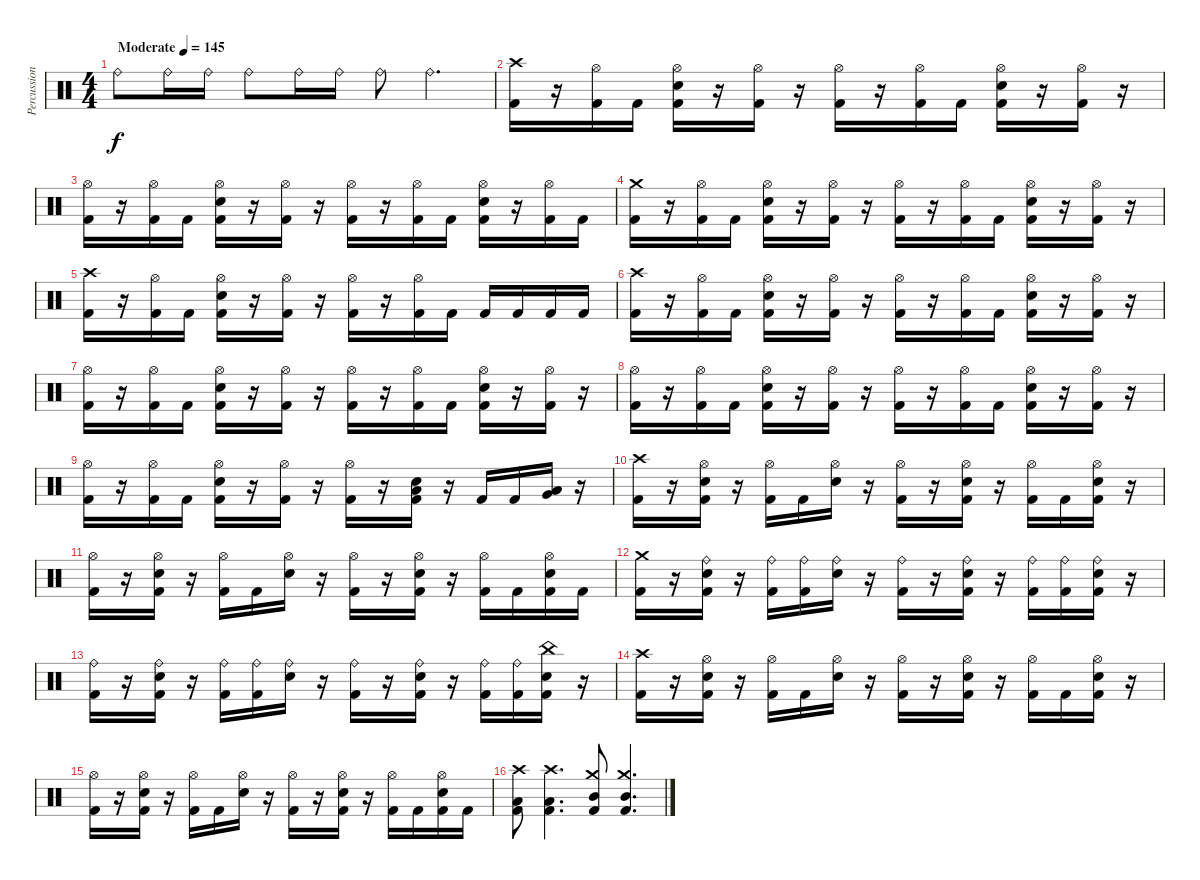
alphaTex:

\track ("Percussion" "Percussion") {instrument percussion}
\staff {score}
\articulation defaults
\ts (4 4)
\tempo (145 "Moderate")
\clef neutral
\ks c "Ride (bell)".8{dy f} "Ride (bell)".16 "Ride (bell)".16 "Ride (bell)".8 "Ride (bell)".16 "Ride (bell)".16 "Ride (bell)".8 "Ride (bell)".4{d}
|
("Crash high (hit)" "Kick (hit) 2").16 r.16 ("Hi-Hat (open)" "Kick (hit) 2").16 "Kick (hit) 2".16 ("Hi-Hat (open)" "Snare (hit) 2" "Kick (hit) 2").16 r.16 ("Hi-Hat (open)" "Kick (hit) 2").16 r.16 ("Hi-Hat (open)" "Kick (hit) 2").16 r.16 ("Hi-Hat (open)" "Kick (hit) 2").16 "Kick (hit) 2".16 ("Hi-Hat (open)" "Snare (hit) 2" "Kick (hit) 2").16 r.16 ("Hi-Hat (open)" "Kick (hit) 2").16 r.16 |
("Hi-Hat (open)" "Kick (hit) 2").16 r.16 ("Hi-Hat (open)" "Kick (hit) 2").16 "Kick (hit) 2".16 ("Hi-Hat (open)" "Snare (hit) 2" "Kick (hit) 2").16 r.16 ("Hi-Hat (open)" "Kick (hit) 2").16 r.16 ("Hi-Hat (open)" "Kick (hit) 2").16 r.16 ("Hi-Hat (open)" "Kick (hit) 2").16 "Kick (hit) 2".16 ("Hi-Hat (open)" "Snare (hit) 2" "Kick (hit) 2").16 r.16 ("Hi-Hat (open)" "Kick (hit) 2").16 "Kick (hit) 2".16 |
("Crash medium (hit)" "Kick (hit) 2").16 r.16 ("Hi-Hat (open)" "Kick (hit) 2").16 "Kick (hit) 2".16 ("Hi-Hat (open)" "Snare (hit) 2" "Kick (hit) 2").16 r.16 ("Hi-Hat (open)" "Kick (hit) 2").16 r.16 ("Hi-Hat (open)" "Kick (hit) 2").16 r.16 ("Hi-Hat (open)" "Kick (hit) 2").16 "Kick (hit) 2".16 ("Hi-Hat (open)" "Snare (hit) 2" "Kick (hit) 2").16 r.16 ("Hi-Hat (open)" "Kick (hit) 2").16 r.16 |
("Crash high (hit)" "Kick (hit) 2").16 r.16 ("Hi-Hat (open)" "Kick (hit) 2").16 "Kick (hit) 2".16 ("Hi-Hat (open)" "Snare (hit) 2" "Kick (hit) 2").16 r.16 ("Hi-Hat (open)" "Kick (hit) 2").16 r.16 ("Hi-Hat (open)" "Kick (hit) 2").16 r.16 ("Hi-Hat (open)" "Kick (hit) 2").16 "Kick (hit) 2".16 "Kick (hit) 2".16 "Kick (hit) 2".16 "Kick (hit) 2".16 "Kick (hit) 2".16 |
("Crash high (hit)" "Kick (hit) 2").16 r.16 ("Hi-Hat (open)" "Kick (hit) 2").16 "Kick (hit) 2".16 ("Hi-Hat (open)" "Snare (hit) 2" "Kick (hit) 2").16 r.16 ("Hi-Hat (open)" "Kick (hit) 2").16 r.16 ("Hi-Hat (open)" "Kick (hit) 2").16 r.16 ("Hi-Hat (open)" "Kick (hit) 2").16 "Kick (hit) 2".16 ("Hi-Hat (open)" "Snare (hit) 2" "Kick (hit) 2").16 r.16 ("Hi-Hat (open)" "Kick (hit) 2").16 r.16 |
("Hi-Hat (open)" "Kick (hit) 2").16 r.16 ("Hi-Hat (open)" "Kick (hit) 2").16 "Kick (hit) 2".16 ("Hi-Hat (open)" "Snare (hit) 2" "Kick (hit) 2").16 r.16 ("Hi-Hat (open)" "Kick (hit) 2").16 r.16 ("Hi-Hat (open)" "Kick (hit) 2").16 r.16 ("Hi-Hat (open)" "Kick (hit) 2").16 "Kick (hit) 2".16 ("Hi-Hat (open)" "Snare (hit) 2" "Kick (hit) 2").16 r.16 ("Hi-Hat (open)" "Kick (hit) 2").16 r.16 |
("Hi-Hat (open)" "Kick (hit) 2").16 r.16 ("Hi-Hat (open)" "Kick (hit) 2").16 "Kick (hit) 2".16 ("Hi-Hat (open)" "Snare (hit) 2" "Kick (hit) 2").16 r.16 ("Hi-Hat (open)" "Kick (hit) 2").16 r.16 ("Hi-Hat (open)" "Kick (hit) 2").16 r.16 ("Hi-Hat (open)" "Kick (hit) 2").16 "Kick (hit) 2".16 ("Hi-Hat (open)" "Snare (hit) 2" "Kick (hit) 2").16 r.16 ("Hi-Hat (open)" "Kick (hit) 2").16 r.16 |
("Hi-Hat (open)" "Kick (hit) 2").16 r.16 ("Hi-Hat (open)" "Kick (hit) 2").16 "Kick (hit) 2".16 ("Hi-Hat (open)" "Snare (hit) 2" "Kick (hit) 2").16 r.16 ("Hi-Hat (open)" "Kick (hit) 2").16 r.16 ("Hi-Hat (open)" "Kick (hit) 2").16 r.16 ("Low Tom (hit)" "Snare (hit) 2" "Kick (hit) 2").16 r.16 "Kick (hit) 2".16 "Kick (hit) 2".16 ("Low Floor Tom (hit)" "Very Low Tom (hit)").16 r.16 |
("Crash high (hit)" "Kick (hit) 2").16 r.16 ("Hi-Hat (open)" "Snare (hit) 2" "Kick (hit) 2").16 r.16 ("Hi-Hat (open)" "Kick (hit) 2").16 "Kick (hit) 2".16 ("Hi-Hat (open)" "Snare (hit) 2").16 r.16 ("Hi-Hat (open)" "Kick (hit) 2").16 r.16 ("Hi-Hat (open)" "Snare (hit) 2" "Kick (hit) 2").16 r.16 ("Hi-Hat (open)" "Kick (hit) 2").16 "Kick (hit) 2".16 ("Hi-Hat (open)" "Snare (hit) 2" "Kick (hit) 2").16 r.16 |
("Hi-Hat (open)" "Kick (hit) 2").16 r.16 ("Hi-Hat (open)" "Snare (hit) 2" "Kick (hit) 2").16 r.16 ("Hi-Hat (open)" "Kick (hit) 2").16 "Kick (hit) 2".16 ("Hi-Hat (open)" "Snare (hit) 2").16 r.16 ("Hi-Hat (open)" "Kick (hit) 2").16 r.16 ("Hi-Hat (open)" "Snare (hit) 2" "Kick (hit) 2").16 r.16 ("Hi-Hat (open)" "Kick (hit) 2").16 "Kick (hit) 2".16 ("Hi-Hat (open)" "Snare (hit) 2" "Kick (hit) 2").16 "Kick (hit) 2".16 |
("Crash medium (hit)" "Kick (hit) 2").16 r.16 ("Ride (bell)" "Snare (hit) 2" "Kick (hit) 2").16 r.16 ("Ride (bell)" "Kick (hit) 2").16 ("Ride (bell)" "Kick (hit) 2").16 ("Ride (bell)" "Snare (hit) 2").16 r.16 ("Ride (bell)" "Kick (hit) 2").16 r.16 ("Ride (bell)" "Snare (hit) 2" "Kick (hit) 2").16 r.16 ("Ride (bell)" "Kick (hit) 2").16 ("Ride (bell)" "Kick (hit) 2").16 ("Ride (bell)" "Snare (hit) 2" "Kick (hit) 2").16 r.16 |
("Ride (bell)" "Kick (hit) 2").16 r.16 ("Ride (bell)" "Snare (hit) 2" "Kick (hit) 2").16 r.16 ("Ride (bell)" "Kick (hit) 2").16 ("Ride (bell)" "Kick (hit) 2").16 ("Ride (bell)" "Snare (hit) 2").16 r.16 ("Ride (bell)" "Kick (hit) 2").16 r.16 ("Ride (bell)" "Snare (hit) 2" "Kick (hit) 2").16 r.16 ("Ride (bell)" "Kick (hit) 2").16 ("Ride (bell)" "Kick (hit) 2").16 ("China (hit)" "Snare (hit) 2" "Kick (hit) 2").16 r.16 |
("Crash high (hit)" "Kick (hit) 2").16 r.16 ("Hi-Hat (open)" "Snare (hit) 2" "Kick (hit) 2").16 r.16 ("Hi-Hat (open)" "Kick (hit) 2").16 "Kick (hit) 2".16 ("Hi-Hat (open)" "Snare (hit) 2").16 r.16 ("Hi-Hat (open)" "Kick (hit) 2").16 r.16 ("Hi-Hat (open)" "Snare (hit) 2" "Kick (hit) 2").16 r.16 ("Hi-Hat (open)" "Kick (hit) 2").16 "Kick (hit) 2".16 ("Hi-Hat (open)" "Snare (hit) 2" "Kick (hit) 2").16 r.16 |
("Hi-Hat (open)" "Kick (hit) 2").16 r.16 ("Hi-Hat (open)" "Snare (hit) 2" "Kick (hit) 2").16 r.16 ("Hi-Hat (open)" "Kick (hit) 2").16 "Kick (hit) 2".16 ("Hi-Hat (open)" "Snare (hit) 2").16 r.16 ("Hi-Hat (open)" "Kick (hit) 2").16 r.16 ("Hi-Hat (open)" "Snare (hit) 2" "Kick (hit) 2").16 r.16 ("Hi-Hat (open)" "Kick (hit) 2").16 "Kick (hit) 2".16 ("Hi-Hat (open)" "Snare (hit) 2" "Kick (hit) 2").16 "Kick (hit) 2".16 |
("Crash high (hit)" "Low Floor Tom (hit)" "Kick (hit) 2").8 ("Crash high (hit)" "Low Floor Tom (hit)" "Kick (hit) 2").4{d} ("Crash medium (hit)" "Mid Tom (hit)" "Kick (hit) 2").8 ("Crash medium (hit)" "Mid Tom (hit)" "Kick (hit) 2").4{d}
